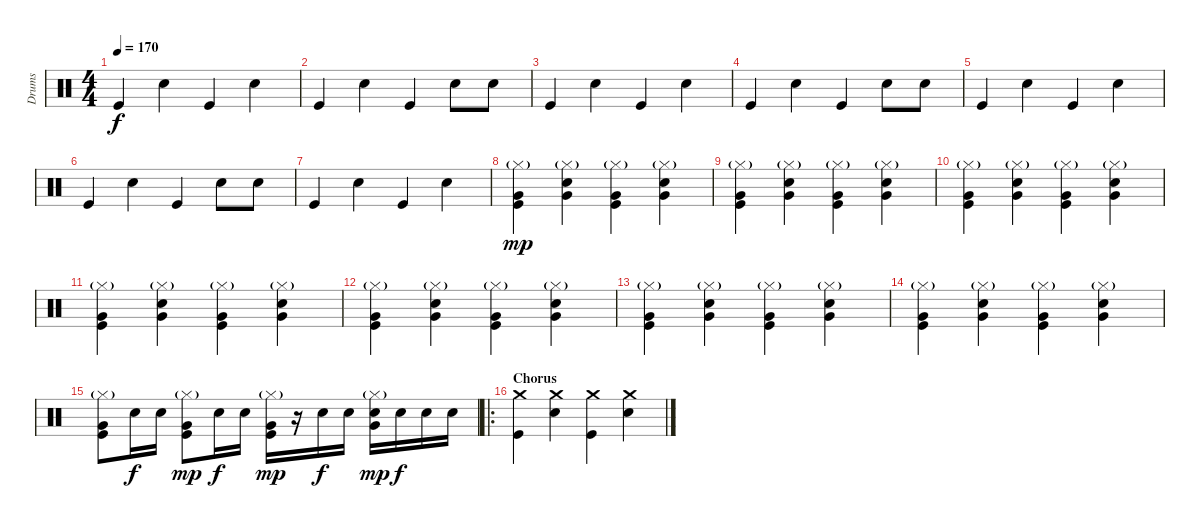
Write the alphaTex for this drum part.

\track ("Drums" "Drums") {instrument percussion}
\staff {score}
\articulation defaults
\ts (4 4)
\tempo 170
\clef neutral
\ks c "Kick (hit)".4{dy f} "Snare (hit) 2".4 "Kick (hit)".4 "Snare (hit) 2".4
|
"Kick (hit)".4 "Snare (hit) 2".4 "Kick (hit)".4 "Snare (hit) 2".8 "Hand Clap (hit)".8 |
"Kick (hit)".4 "Snare (hit) 2".4 "Kick (hit)".4 "Snare (hit) 2".4 |
"Kick (hit)".4 "Snare (hit) 2".4 "Kick (hit)".4 "Snare (hit) 2".8 "Hand Clap (hit)".8 |
"Kick (hit)".4 "Snare (hit) 2".4 "Kick (hit)".4 "Snare (hit) 2".4 |
"Kick (hit)".4 "Snare (hit) 2".4 "Kick (hit)".4 "Snare (hit) 2".8 "Hand Clap (hit)".8 |
"Kick (hit)".4 "Snare (hit) 2".4 "Kick (hit)".4 "Snare (hit) 2".4 |
("Very Low Tom (hit)" "Hi-Hat (closed)"{g} "Kick (hit)").4{dy mp} ("Very Low Tom (hit)" "Hi-Hat (closed)"{g} "Snare (hit) 2").4 ("Very Low Tom (hit)" "Hi-Hat (closed)"{g} "Kick (hit)").4 ("Very Low Tom (hit)" "Hi-Hat (closed)"{g} "Snare (hit) 2").4 |
("Very Low Tom (hit)" "Hi-Hat (closed)"{g} "Kick (hit)").4 ("Very Low Tom (hit)" "Hi-Hat (closed)"{g} "Snare (hit) 2").4 ("Very Low Tom (hit)" "Hi-Hat (closed)"{g} "Kick (hit)").4 ("Very Low Tom (hit)" "Hi-Hat (closed)"{g} "Snare (hit) 2").4 |
("Very Low Tom (hit)" "Hi-Hat (closed)"{g} "Kick (hit)").4 ("Very Low Tom (hit)" "Hi-Hat (closed)"{g} "Snare (hit) 2").4 ("Very Low Tom (hit)" "Hi-Hat (closed)"{g} "Kick (hit)").4 ("Very Low Tom (hit)" "Hi-Hat (closed)"{g} "Snare (hit) 2").4 |
("Very Low Tom (hit)" "Hi-Hat (closed)"{g} "Kick (hit)").4 ("Very Low Tom (hit)" "Hi-Hat (closed)"{g} "Snare (hit) 2").4 ("Very Low Tom (hit)" "Hi-Hat (closed)"{g} "Kick (hit)").4 ("Very Low Tom (hit)" "Hi-Hat (closed)"{g} "Snare (hit) 2").4 |
("Very Low Tom (hit)" "Hi-Hat (closed)"{g} "Kick (hit)").4 ("Very Low Tom (hit)" "Hi-Hat (closed)"{g} "Snare (hit) 2").4 ("Very Low Tom (hit)" "Hi-Hat (closed)"{g} "Kick (hit)").4 ("Very Low Tom (hit)" "Hi-Hat (closed)"{g} "Snare (hit) 2").4 |
("Very Low Tom (hit)" "Hi-Hat (closed)"{g} "Kick (hit)").4 ("Very Low Tom (hit)" "Hi-Hat (closed)"{g} "Snare (hit) 2").4 ("Very Low Tom (hit)" "Hi-Hat (closed)"{g} "Kick (hit)").4 ("Very Low Tom (hit)" "Hi-Hat (closed)"{g} "Snare (hit) 2").4 |
("Very Low Tom (hit)" "Hi-Hat (closed)"{g} "Kick (hit)").4 ("Very Low Tom (hit)" "Hi-Hat (closed)"{g} "Snare (hit) 2").4 ("Very Low Tom (hit)" "Hi-Hat (closed)"{g} "Kick (hit)").4 ("Very Low Tom (hit)" "Hi-Hat (closed)"{g} "Snare (hit) 2").4 |
("Very Low Tom (hit)" "Hi-Hat (closed)"{g} "Kick (hit)").8 "Snare (hit) 2".16{dy f} "Snare (hit) 2".16 ("Very Low Tom (hit)" "Hi-Hat (closed)"{g} "Kick (hit)").8{dy mp} "Snare (hit) 2".16{dy f} "Snare (hit) 2".16 ("Very Low Tom (hit)" "Hi-Hat (closed)"{g} "Kick (hit)").16{dy mp} r.16 "Snare (hit) 2".16{dy f} "Snare (hit) 2".16 ("Very Low Tom (hit)" "Hi-Hat (closed)"{g} "Snare (hit) 2").16{dy mp} "Snare (hit) 2".16{dy f} "Snare (hit) 2".16 "Snare (hit) 2".16 |
\ro
\section ("" "Chorus")
("Crash medium (hit)" "Kick (hit)").4 ("Crash medium (hit)" "Snare (hit) 2").4 ("Crash medium (hit)" "Kick (hit)").4 ("Crash medium (hit)" "Snare (hit) 2").4
